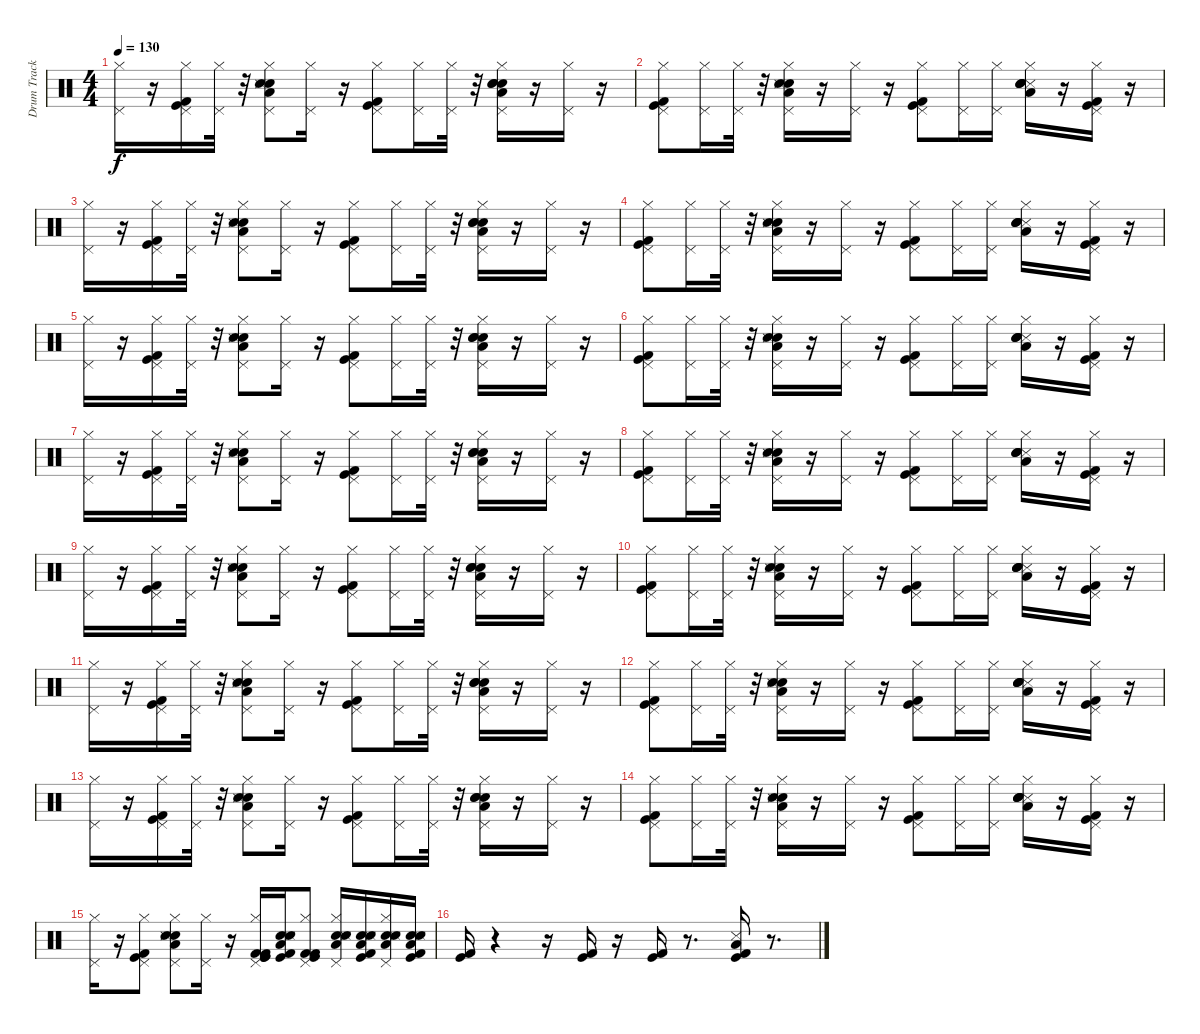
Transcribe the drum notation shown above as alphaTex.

\track ("Drum Track" "Drum Track") {instrument percussion}
\staff {score}
\articulation defaults
\ts (4 4)
\tempo 130
\clef neutral
\ks c
("Pedal Hi-Hat (hit)" "Hi-Hat (closed)").16{dy f} r.16 ("Kick (hit) 2" "Kick (hit)" "Pedal Hi-Hat (hit)" "Hi-Hat (closed)").16 ("Pedal Hi-Hat (hit)" "Hi-Hat (closed)").32 r.32 ("Hi-Hat (closed)" "Pedal Hi-Hat (hit)" "Low Floor Tom (hit)" "Electric Snare (hit)" "Snare (hit) 2" "Snare (side stick) 3").8 ("Hi-Hat (closed)" "Pedal Hi-Hat (hit)").16 r.16 ("Hi-Hat (closed)" "Pedal Hi-Hat (hit)" "Kick (hit) 2" "Kick (hit)").8 ("Hi-Hat (closed)" "Pedal Hi-Hat (hit)").16 ("Pedal Hi-Hat (hit)" "Hi-Hat (closed)").32 r.32 ("Hi-Hat (closed)" "Pedal Hi-Hat (hit)" "Low Floor Tom (hit)" "Electric Snare (hit)" "Electric Snare (hit)" "Snare (hit) 2").16 r.16 ("Hi-Hat (closed)" "Pedal Hi-Hat (hit)").16 r.16 |
("Kick (hit) 2" "Kick (hit)" "Hi-Hat (closed)" "Pedal Hi-Hat (hit)").8 ("Hi-Hat (closed)" "Pedal Hi-Hat (hit)").16 ("Hi-Hat (closed)" "Pedal Hi-Hat (hit)").32 r.32 ("Electric Snare (hit)" "Snare (hit) 2" "Snare (side stick) 3" "Hi-Hat (closed)" "Pedal Hi-Hat (hit)" "Low Floor Tom (hit)").16 r.16 ("Hi-Hat (closed)" "Pedal Hi-Hat (hit)").16 r.16 ("Kick (hit) 2" "Kick (hit)" "Hi-Hat (closed)" "Pedal Hi-Hat (hit)").8 ("Hi-Hat (closed)" "Pedal Hi-Hat (hit)").16 ("Pedal Hi-Hat (hit)" "Hi-Hat (closed)").16 ("Snare (side stick) 3" "Snare (hit) 2" "Electric Snare (hit)" "Electric Snare (hit)" "Low Floor Tom (hit)" "Hi-Hat (closed)").16 r.16 ("Kick (hit) 2" "Kick (hit)" "Hi-Hat (closed)" "Pedal Hi-Hat (hit)").16 r.16 |
("Pedal Hi-Hat (hit)" "Hi-Hat (closed)").16 r.16 ("Kick (hit) 2" "Kick (hit)" "Pedal Hi-Hat (hit)" "Hi-Hat (closed)").16 ("Pedal Hi-Hat (hit)" "Hi-Hat (closed)").32 r.32 ("Hi-Hat (closed)" "Pedal Hi-Hat (hit)" "Low Floor Tom (hit)" "Electric Snare (hit)" "Snare (hit) 2" "Snare (side stick) 3").8 ("Hi-Hat (closed)" "Pedal Hi-Hat (hit)").16 r.16 ("Hi-Hat (closed)" "Pedal Hi-Hat (hit)" "Kick (hit) 2" "Kick (hit)").8 ("Hi-Hat (closed)" "Pedal Hi-Hat (hit)").16 ("Pedal Hi-Hat (hit)" "Hi-Hat (closed)").32 r.32 ("Hi-Hat (closed)" "Pedal Hi-Hat (hit)" "Low Floor Tom (hit)" "Electric Snare (hit)" "Electric Snare (hit)" "Snare (hit) 2").16 r.16 ("Hi-Hat (closed)" "Pedal Hi-Hat (hit)").16 r.16 |
("Kick (hit) 2" "Kick (hit)" "Hi-Hat (closed)" "Pedal Hi-Hat (hit)").8 ("Hi-Hat (closed)" "Pedal Hi-Hat (hit)").16 ("Hi-Hat (closed)" "Pedal Hi-Hat (hit)").32 r.32 ("Electric Snare (hit)" "Snare (hit) 2" "Snare (side stick) 3" "Hi-Hat (closed)" "Pedal Hi-Hat (hit)" "Low Floor Tom (hit)").16 r.16 ("Hi-Hat (closed)" "Pedal Hi-Hat (hit)").16 r.16 ("Kick (hit) 2" "Kick (hit)" "Hi-Hat (closed)" "Pedal Hi-Hat (hit)").8 ("Hi-Hat (closed)" "Pedal Hi-Hat (hit)").16 ("Pedal Hi-Hat (hit)" "Hi-Hat (closed)").16 ("Snare (side stick) 3" "Snare (hit) 2" "Electric Snare (hit)" "Electric Snare (hit)" "Low Floor Tom (hit)" "Hi-Hat (closed)").16 r.16 ("Kick (hit) 2" "Kick (hit)" "Hi-Hat (closed)" "Pedal Hi-Hat (hit)").16 r.16 |
("Pedal Hi-Hat (hit)" "Hi-Hat (closed)").16 r.16 ("Kick (hit) 2" "Kick (hit)" "Pedal Hi-Hat (hit)" "Hi-Hat (closed)").16 ("Pedal Hi-Hat (hit)" "Hi-Hat (closed)").32 r.32 ("Hi-Hat (closed)" "Pedal Hi-Hat (hit)" "Low Floor Tom (hit)" "Electric Snare (hit)" "Snare (hit) 2" "Snare (side stick) 3").8 ("Hi-Hat (closed)" "Pedal Hi-Hat (hit)").16 r.16 ("Hi-Hat (closed)" "Pedal Hi-Hat (hit)" "Kick (hit) 2" "Kick (hit)").8 ("Hi-Hat (closed)" "Pedal Hi-Hat (hit)").16 ("Pedal Hi-Hat (hit)" "Hi-Hat (closed)").32 r.32 ("Hi-Hat (closed)" "Pedal Hi-Hat (hit)" "Low Floor Tom (hit)" "Electric Snare (hit)" "Electric Snare (hit)" "Snare (hit) 2").16 r.16 ("Hi-Hat (closed)" "Pedal Hi-Hat (hit)").16 r.16 |
("Kick (hit) 2" "Kick (hit)" "Hi-Hat (closed)" "Pedal Hi-Hat (hit)").8 ("Hi-Hat (closed)" "Pedal Hi-Hat (hit)").16 ("Hi-Hat (closed)" "Pedal Hi-Hat (hit)").32 r.32 ("Electric Snare (hit)" "Snare (hit) 2" "Snare (side stick) 3" "Hi-Hat (closed)" "Pedal Hi-Hat (hit)" "Low Floor Tom (hit)").16 r.16 ("Hi-Hat (closed)" "Pedal Hi-Hat (hit)").16 r.16 ("Kick (hit) 2" "Kick (hit)" "Hi-Hat (closed)" "Pedal Hi-Hat (hit)").8 ("Hi-Hat (closed)" "Pedal Hi-Hat (hit)").16 ("Pedal Hi-Hat (hit)" "Hi-Hat (closed)").16 ("Snare (side stick) 3" "Snare (hit) 2" "Electric Snare (hit)" "Electric Snare (hit)" "Low Floor Tom (hit)" "Hi-Hat (closed)").16 r.16 ("Kick (hit) 2" "Kick (hit)" "Hi-Hat (closed)" "Pedal Hi-Hat (hit)").16 r.16 |
("Pedal Hi-Hat (hit)" "Hi-Hat (closed)").16 r.16 ("Kick (hit) 2" "Kick (hit)" "Pedal Hi-Hat (hit)" "Hi-Hat (closed)").16 ("Pedal Hi-Hat (hit)" "Hi-Hat (closed)").32 r.32 ("Hi-Hat (closed)" "Pedal Hi-Hat (hit)" "Low Floor Tom (hit)" "Electric Snare (hit)" "Snare (hit) 2" "Snare (side stick) 3").8 ("Hi-Hat (closed)" "Pedal Hi-Hat (hit)").16 r.16 ("Hi-Hat (closed)" "Pedal Hi-Hat (hit)" "Kick (hit) 2" "Kick (hit)").8 ("Hi-Hat (closed)" "Pedal Hi-Hat (hit)").16 ("Pedal Hi-Hat (hit)" "Hi-Hat (closed)").32 r.32 ("Hi-Hat (closed)" "Pedal Hi-Hat (hit)" "Low Floor Tom (hit)" "Electric Snare (hit)" "Electric Snare (hit)" "Snare (hit) 2").16 r.16 ("Hi-Hat (closed)" "Pedal Hi-Hat (hit)").16 r.16 |
("Kick (hit) 2" "Kick (hit)" "Hi-Hat (closed)" "Pedal Hi-Hat (hit)").8 ("Hi-Hat (closed)" "Pedal Hi-Hat (hit)").16 ("Hi-Hat (closed)" "Pedal Hi-Hat (hit)").32 r.32 ("Electric Snare (hit)" "Snare (hit) 2" "Snare (side stick) 3" "Hi-Hat (closed)" "Pedal Hi-Hat (hit)" "Low Floor Tom (hit)").16 r.16 ("Hi-Hat (closed)" "Pedal Hi-Hat (hit)").16 r.16 ("Kick (hit) 2" "Kick (hit)" "Hi-Hat (closed)" "Pedal Hi-Hat (hit)").8 ("Hi-Hat (closed)" "Pedal Hi-Hat (hit)").16 ("Pedal Hi-Hat (hit)" "Hi-Hat (closed)").16 ("Snare (side stick) 3" "Snare (hit) 2" "Electric Snare (hit)" "Electric Snare (hit)" "Low Floor Tom (hit)" "Hi-Hat (closed)").16 r.16 ("Kick (hit) 2" "Kick (hit)" "Hi-Hat (closed)" "Pedal Hi-Hat (hit)").16 r.16 |
("Pedal Hi-Hat (hit)" "Hi-Hat (closed)").16 r.16 ("Kick (hit) 2" "Kick (hit)" "Pedal Hi-Hat (hit)" "Hi-Hat (closed)").16 ("Pedal Hi-Hat (hit)" "Hi-Hat (closed)").32 r.32 ("Hi-Hat (closed)" "Pedal Hi-Hat (hit)" "Low Floor Tom (hit)" "Electric Snare (hit)" "Snare (hit) 2" "Snare (side stick) 3").8 ("Hi-Hat (closed)" "Pedal Hi-Hat (hit)").16 r.16 ("Hi-Hat (closed)" "Pedal Hi-Hat (hit)" "Kick (hit) 2" "Kick (hit)").8 ("Hi-Hat (closed)" "Pedal Hi-Hat (hit)").16 ("Pedal Hi-Hat (hit)" "Hi-Hat (closed)").32 r.32 ("Hi-Hat (closed)" "Pedal Hi-Hat (hit)" "Low Floor Tom (hit)" "Electric Snare (hit)" "Electric Snare (hit)" "Snare (hit) 2").16 r.16 ("Hi-Hat (closed)" "Pedal Hi-Hat (hit)").16 r.16 |
("Kick (hit) 2" "Kick (hit)" "Hi-Hat (closed)" "Pedal Hi-Hat (hit)").8 ("Hi-Hat (closed)" "Pedal Hi-Hat (hit)").16 ("Hi-Hat (closed)" "Pedal Hi-Hat (hit)").32 r.32 ("Electric Snare (hit)" "Snare (hit) 2" "Snare (side stick) 3" "Hi-Hat (closed)" "Pedal Hi-Hat (hit)" "Low Floor Tom (hit)").16 r.16 ("Hi-Hat (closed)" "Pedal Hi-Hat (hit)").16 r.16 ("Kick (hit) 2" "Kick (hit)" "Hi-Hat (closed)" "Pedal Hi-Hat (hit)").8 ("Hi-Hat (closed)" "Pedal Hi-Hat (hit)").16 ("Pedal Hi-Hat (hit)" "Hi-Hat (closed)").16 ("Snare (side stick) 3" "Snare (hit) 2" "Electric Snare (hit)" "Electric Snare (hit)" "Low Floor Tom (hit)" "Hi-Hat (closed)").16 r.16 ("Kick (hit) 2" "Kick (hit)" "Hi-Hat (closed)" "Pedal Hi-Hat (hit)").16 r.16 |
("Pedal Hi-Hat (hit)" "Hi-Hat (closed)").16 r.16 ("Kick (hit) 2" "Kick (hit)" "Pedal Hi-Hat (hit)" "Hi-Hat (closed)").16 ("Pedal Hi-Hat (hit)" "Hi-Hat (closed)").32 r.32 ("Hi-Hat (closed)" "Pedal Hi-Hat (hit)" "Low Floor Tom (hit)" "Electric Snare (hit)" "Snare (hit) 2" "Snare (side stick) 3").8 ("Hi-Hat (closed)" "Pedal Hi-Hat (hit)").16 r.16 ("Hi-Hat (closed)" "Pedal Hi-Hat (hit)" "Kick (hit) 2" "Kick (hit)").8 ("Hi-Hat (closed)" "Pedal Hi-Hat (hit)").16 ("Pedal Hi-Hat (hit)" "Hi-Hat (closed)").32 r.32 ("Hi-Hat (closed)" "Pedal Hi-Hat (hit)" "Low Floor Tom (hit)" "Electric Snare (hit)" "Electric Snare (hit)" "Snare (hit) 2").16 r.16 ("Hi-Hat (closed)" "Pedal Hi-Hat (hit)").16 r.16 |
("Kick (hit) 2" "Kick (hit)" "Hi-Hat (closed)" "Pedal Hi-Hat (hit)").8 ("Hi-Hat (closed)" "Pedal Hi-Hat (hit)").16 ("Hi-Hat (closed)" "Pedal Hi-Hat (hit)").32 r.32 ("Electric Snare (hit)" "Snare (hit) 2" "Snare (side stick) 3" "Hi-Hat (closed)" "Pedal Hi-Hat (hit)" "Low Floor Tom (hit)").16 r.16 ("Hi-Hat (closed)" "Pedal Hi-Hat (hit)").16 r.16 ("Kick (hit) 2" "Kick (hit)" "Hi-Hat (closed)" "Pedal Hi-Hat (hit)").8 ("Hi-Hat (closed)" "Pedal Hi-Hat (hit)").16 ("Pedal Hi-Hat (hit)" "Hi-Hat (closed)").16 ("Snare (side stick) 3" "Snare (hit) 2" "Electric Snare (hit)" "Electric Snare (hit)" "Low Floor Tom (hit)" "Hi-Hat (closed)").16 r.16 ("Kick (hit) 2" "Kick (hit)" "Hi-Hat (closed)" "Pedal Hi-Hat (hit)").16 r.16 |
("Pedal Hi-Hat (hit)" "Hi-Hat (closed)").16 r.16 ("Kick (hit) 2" "Kick (hit)" "Pedal Hi-Hat (hit)" "Hi-Hat (closed)").16 ("Pedal Hi-Hat (hit)" "Hi-Hat (closed)").32 r.32 ("Hi-Hat (closed)" "Pedal Hi-Hat (hit)" "Low Floor Tom (hit)" "Electric Snare (hit)" "Snare (hit) 2" "Snare (side stick) 3").8 ("Hi-Hat (closed)" "Pedal Hi-Hat (hit)").16 r.16 ("Hi-Hat (closed)" "Pedal Hi-Hat (hit)" "Kick (hit) 2" "Kick (hit)").8 ("Hi-Hat (closed)" "Pedal Hi-Hat (hit)").16 ("Pedal Hi-Hat (hit)" "Hi-Hat (closed)").32 r.32 ("Hi-Hat (closed)" "Pedal Hi-Hat (hit)" "Low Floor Tom (hit)" "Electric Snare (hit)" "Electric Snare (hit)" "Snare (hit) 2").16 r.16 ("Hi-Hat (closed)" "Pedal Hi-Hat (hit)").16 r.16 |
("Kick (hit) 2" "Kick (hit)" "Hi-Hat (closed)" "Pedal Hi-Hat (hit)").8 ("Hi-Hat (closed)" "Pedal Hi-Hat (hit)").16 ("Hi-Hat (closed)" "Pedal Hi-Hat (hit)").32 r.32 ("Electric Snare (hit)" "Snare (hit) 2" "Snare (side stick) 3" "Hi-Hat (closed)" "Pedal Hi-Hat (hit)" "Low Floor Tom (hit)").16 r.16 ("Hi-Hat (closed)" "Pedal Hi-Hat (hit)").16 r.16 ("Kick (hit) 2" "Kick (hit)" "Hi-Hat (closed)" "Pedal Hi-Hat (hit)").8 ("Hi-Hat (closed)" "Pedal Hi-Hat (hit)").16 ("Pedal Hi-Hat (hit)" "Hi-Hat (closed)").16 ("Snare (side stick) 3" "Snare (hit) 2" "Electric Snare (hit)" "Electric Snare (hit)" "Low Floor Tom (hit)" "Hi-Hat (closed)").16 r.16 ("Kick (hit) 2" "Kick (hit)" "Hi-Hat (closed)" "Pedal Hi-Hat (hit)").16 r.16 |
("Pedal Hi-Hat (hit)" "Hi-Hat (closed)").16 r.16 ("Kick (hit) 2" "Kick (hit)" "Hi-Hat (closed)" "Pedal Hi-Hat (hit)").8 ("Hi-Hat (closed)" "Pedal Hi-Hat (hit)" "Low Floor Tom (hit)" "Electric Snare (hit)" "Snare (hit) 2" "Snare (side stick) 3").8 ("Hi-Hat (closed)" "Pedal Hi-Hat (hit)").16 r.16 ("Hi-Hat (closed)" "Pedal Hi-Hat (hit)" "Kick (hit) 2" "Kick (hit)" "Kick (hit)" "Kick (hit) 2").16 ("Low Floor Tom (hit)" "Electric Snare (hit)" "Snare (hit) 2" "Snare (side stick) 3" "Kick (hit) 2" "Kick (hit)").16 ("Hi-Hat (closed)" "Pedal Hi-Hat (hit)" "Kick (hit) 2" "Kick (hit)" "Kick (hit) 2").8 ("Hi-Hat (closed)" "Pedal Hi-Hat (hit)" "Low Floor Tom (hit)" "Electric Snare (hit)" "Snare (hit) 2" "Snare (side stick) 3").16 ("Low Floor Tom (hit)" "Electric Snare (hit)" "Snare (hit) 2" "Snare (side stick) 3" "Kick (hit) 2" "Kick (hit)").16 ("Hi-Hat (closed)" "Pedal Hi-Hat (hit)" "Low Floor Tom (hit)" "Electric Snare (hit)" "Snare (hit) 2" "Snare (side stick) 3").16 ("Electric Snare (hit)" "Snare (hit) 2" "Kick (hit) 2" "Kick (hit)" "Low Floor Tom (hit)" "Snare (side stick) 3").16 |
("Kick (hit) 2" "Kick (hit)").16 r.4 r.16 ("Kick (hit) 2" "Kick (hit)").16 r.16 ("Kick (hit) 2" "Kick (hit)").16 r.8{d} ("Snare (side stick) 3" "Kick (hit) 2" "Kick (hit)" "Low Floor Tom (hit)").16 r.8{d}
